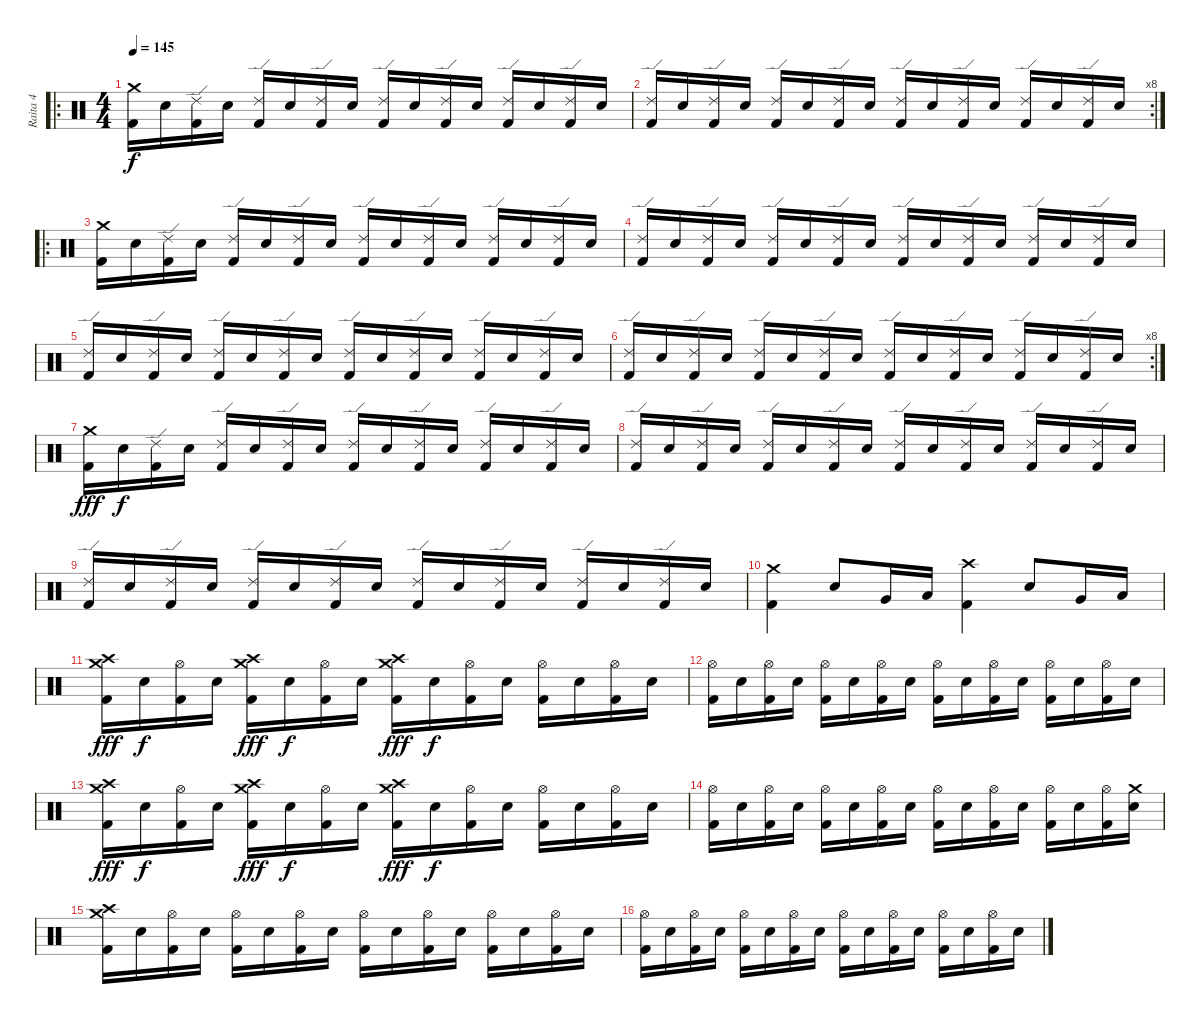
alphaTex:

\track ("Raita 4" "Raita 4") {instrument percussion}
\staff {score}
\articulation defaults
\ro
\ts (4 4)
\tempo 145
\clef neutral
\ks c
("Crash medium (hit)" "Kick (hit) 2").16{dy f} "Electric Snare (hit)".16 ("Ride (edge) 2" "Kick (hit) 2").16 "Electric Snare (hit)".16 ("Ride (edge) 2" "Kick (hit) 2").16 "Electric Snare (hit)".16 ("Ride (edge) 2" "Kick (hit) 2").16 "Electric Snare (hit)".16 ("Ride (edge) 2" "Kick (hit) 2").16 "Electric Snare (hit)".16 ("Ride (edge) 2" "Kick (hit) 2").16 "Electric Snare (hit)".16 ("Ride (edge) 2" "Kick (hit) 2").16 "Electric Snare (hit)".16 ("Ride (edge) 2" "Kick (hit) 2").16 "Electric Snare (hit)".16 |
\rc 8
("Ride (edge) 2" "Kick (hit) 2").16 "Electric Snare (hit)".16 ("Ride (edge) 2" "Kick (hit) 2").16 "Electric Snare (hit)".16 ("Ride (edge) 2" "Kick (hit) 2").16 "Electric Snare (hit)".16 ("Ride (edge) 2" "Kick (hit) 2").16 "Electric Snare (hit)".16 ("Ride (edge) 2" "Kick (hit) 2").16 "Electric Snare (hit)".16 ("Ride (edge) 2" "Kick (hit) 2").16 "Electric Snare (hit)".16 ("Ride (edge) 2" "Kick (hit) 2").16 "Electric Snare (hit)".16 ("Ride (edge) 2" "Kick (hit) 2").16 "Electric Snare (hit)".16 |
\ro
("Crash medium (hit)" "Kick (hit) 2").16 "Electric Snare (hit)".16 ("Ride (edge) 2" "Kick (hit) 2").16 "Electric Snare (hit)".16 ("Ride (edge) 2" "Kick (hit) 2").16 "Electric Snare (hit)".16 ("Ride (edge) 2" "Kick (hit) 2").16 "Electric Snare (hit)".16 ("Ride (edge) 2" "Kick (hit) 2").16 "Electric Snare (hit)".16 ("Ride (edge) 2" "Kick (hit) 2").16 "Electric Snare (hit)".16 ("Ride (edge) 2" "Kick (hit) 2").16 "Electric Snare (hit)".16 ("Ride (edge) 2" "Kick (hit) 2").16 "Electric Snare (hit)".16 |
("Ride (edge) 2" "Kick (hit) 2").16 "Electric Snare (hit)".16 ("Ride (edge) 2" "Kick (hit) 2").16 "Electric Snare (hit)".16 ("Ride (edge) 2" "Kick (hit) 2").16 "Electric Snare (hit)".16 ("Ride (edge) 2" "Kick (hit) 2").16 "Electric Snare (hit)".16 ("Ride (edge) 2" "Kick (hit) 2").16 "Electric Snare (hit)".16 ("Ride (edge) 2" "Kick (hit) 2").16 "Electric Snare (hit)".16 ("Ride (edge) 2" "Kick (hit) 2").16 "Electric Snare (hit)".16 ("Ride (edge) 2" "Kick (hit) 2").16 "Electric Snare (hit)".16 |
("Ride (edge) 2" "Kick (hit) 2").16 "Electric Snare (hit)".16 ("Ride (edge) 2" "Kick (hit) 2").16 "Electric Snare (hit)".16 ("Ride (edge) 2" "Kick (hit) 2").16 "Electric Snare (hit)".16 ("Ride (edge) 2" "Kick (hit) 2").16 "Electric Snare (hit)".16 ("Ride (edge) 2" "Kick (hit) 2").16 "Electric Snare (hit)".16 ("Ride (edge) 2" "Kick (hit) 2").16 "Electric Snare (hit)".16 ("Ride (edge) 2" "Kick (hit) 2").16 "Electric Snare (hit)".16 ("Ride (edge) 2" "Kick (hit) 2").16 "Electric Snare (hit)".16 |
\rc 8
("Ride (edge) 2" "Kick (hit) 2").16 "Electric Snare (hit)".16 ("Ride (edge) 2" "Kick (hit) 2").16 "Electric Snare (hit)".16 ("Ride (edge) 2" "Kick (hit) 2").16 "Electric Snare (hit)".16 ("Ride (edge) 2" "Kick (hit) 2").16 "Electric Snare (hit)".16 ("Ride (edge) 2" "Kick (hit) 2").16 "Electric Snare (hit)".16 ("Ride (edge) 2" "Kick (hit) 2").16 "Electric Snare (hit)".16 ("Ride (edge) 2" "Kick (hit) 2").16 "Electric Snare (hit)".16 ("Ride (edge) 2" "Kick (hit) 2").16 "Electric Snare (hit)".16 |
("Crash medium (hit)" "Kick (hit) 2").16{dy fff} "Electric Snare (hit)".16{dy f} ("Ride (edge) 2" "Kick (hit) 2").16 "Electric Snare (hit)".16 ("Ride (edge) 2" "Kick (hit) 2").16 "Electric Snare (hit)".16 ("Ride (edge) 2" "Kick (hit) 2").16 "Electric Snare (hit)".16 ("Ride (edge) 2" "Kick (hit) 2").16 "Electric Snare (hit)".16 ("Ride (edge) 2" "Kick (hit) 2").16 "Electric Snare (hit)".16 ("Ride (edge) 2" "Kick (hit) 2").16 "Electric Snare (hit)".16 ("Ride (edge) 2" "Kick (hit) 2").16 "Electric Snare (hit)".16 |
("Ride (edge) 2" "Kick (hit) 2").16 "Electric Snare (hit)".16 ("Ride (edge) 2" "Kick (hit) 2").16 "Electric Snare (hit)".16 ("Ride (edge) 2" "Kick (hit) 2").16 "Electric Snare (hit)".16 ("Ride (edge) 2" "Kick (hit) 2").16 "Electric Snare (hit)".16 ("Ride (edge) 2" "Kick (hit) 2").16 "Electric Snare (hit)".16 ("Ride (edge) 2" "Kick (hit) 2").16 "Electric Snare (hit)".16 ("Ride (edge) 2" "Kick (hit) 2").16 "Electric Snare (hit)".16 ("Ride (edge) 2" "Kick (hit) 2").16 "Electric Snare (hit)".16 |
("Ride (edge) 2" "Kick (hit) 2").16 "Electric Snare (hit)".16 ("Ride (edge) 2" "Kick (hit) 2").16 "Electric Snare (hit)".16 ("Ride (edge) 2" "Kick (hit) 2").16 "Electric Snare (hit)".16 ("Ride (edge) 2" "Kick (hit) 2").16 "Electric Snare (hit)".16 ("Ride (edge) 2" "Kick (hit) 2").16 "Electric Snare (hit)".16 ("Ride (edge) 2" "Kick (hit) 2").16 "Electric Snare (hit)".16 ("Ride (edge) 2" "Kick (hit) 2").16 "Electric Snare (hit)".16 ("Ride (edge) 2" "Kick (hit) 2").16 "Electric Snare (hit)".16 |
("Crash medium (hit)" "Kick (hit) 2").4 "Electric Snare (hit)".8 "Very Low Tom (hit)".16 "Low Floor Tom (hit)".16 ("Crash high (hit)" "Kick (hit) 2").4 "Electric Snare (hit)".8 "Very Low Tom (hit)".16 "Low Floor Tom (hit)".16 |
("Crash high (hit)" "Crash medium (hit)" "Kick (hit) 2").16{dy fff} "Electric Snare (hit)".16{dy f} ("Hi-Hat (open)" "Kick (hit) 2").16 "Electric Snare (hit)".16 ("Crash high (hit)" "Crash medium (hit)" "Kick (hit) 2").16{dy fff} "Electric Snare (hit)".16{dy f} ("Hi-Hat (open)" "Kick (hit) 2").16 "Electric Snare (hit)".16 ("Crash high (hit)" "Crash medium (hit)" "Kick (hit) 2").16{dy fff} "Electric Snare (hit)".16{dy f} ("Hi-Hat (open)" "Kick (hit) 2").16 "Electric Snare (hit)".16 ("Hi-Hat (open)" "Kick (hit) 2").16 "Electric Snare (hit)".16 ("Hi-Hat (open)" "Kick (hit) 2").16 "Electric Snare (hit)".16 |
("Hi-Hat (open)" "Kick (hit) 2").16 "Electric Snare (hit)".16 ("Hi-Hat (open)" "Kick (hit) 2").16 "Electric Snare (hit)".16 ("Hi-Hat (open)" "Kick (hit) 2").16 "Electric Snare (hit)".16 ("Hi-Hat (open)" "Kick (hit) 2").16 "Electric Snare (hit)".16 ("Hi-Hat (open)" "Kick (hit) 2").16 "Electric Snare (hit)".16 ("Hi-Hat (open)" "Kick (hit) 2").16 "Electric Snare (hit)".16 ("Hi-Hat (open)" "Kick (hit) 2").16 "Electric Snare (hit)".16 ("Hi-Hat (open)" "Kick (hit) 2").16 "Electric Snare (hit)".16 |
("Crash high (hit)" "Crash medium (hit)" "Kick (hit) 2").16{dy fff} "Electric Snare (hit)".16{dy f} ("Hi-Hat (open)" "Kick (hit) 2").16 "Electric Snare (hit)".16 ("Crash high (hit)" "Crash medium (hit)" "Kick (hit) 2").16{dy fff} "Electric Snare (hit)".16{dy f} ("Hi-Hat (open)" "Kick (hit) 2").16 "Electric Snare (hit)".16 ("Crash high (hit)" "Crash medium (hit)" "Kick (hit) 2").16{dy fff} "Electric Snare (hit)".16{dy f} ("Hi-Hat (open)" "Kick (hit) 2").16 "Electric Snare (hit)".16 ("Hi-Hat (open)" "Kick (hit) 2").16 "Electric Snare (hit)".16 ("Hi-Hat (open)" "Kick (hit) 2").16 "Electric Snare (hit)".16 |
("Hi-Hat (open)" "Kick (hit) 2").16 "Electric Snare (hit)".16 ("Hi-Hat (open)" "Kick (hit) 2").16 "Electric Snare (hit)".16 ("Hi-Hat (open)" "Kick (hit) 2").16 "Electric Snare (hit)".16 ("Hi-Hat (open)" "Kick (hit) 2").16 "Electric Snare (hit)".16 ("Hi-Hat (open)" "Kick (hit) 2").16 "Electric Snare (hit)".16 ("Hi-Hat (open)" "Kick (hit) 2").16 "Electric Snare (hit)".16 ("Hi-Hat (open)" "Kick (hit) 2").16 "Electric Snare (hit)".16 ("Hi-Hat (open)" "Kick (hit) 2").16 ("Crash medium (hit)" "Electric Snare (hit)").16 |
("Crash high (hit)" "Crash medium (hit)" "Kick (hit) 2").16 "Electric Snare (hit)".16 ("Hi-Hat (open)" "Kick (hit) 2").16 "Electric Snare (hit)".16 ("Hi-Hat (open)" "Kick (hit) 2").16 "Electric Snare (hit)".16 ("Hi-Hat (open)" "Kick (hit) 2").16 "Electric Snare (hit)".16 ("Hi-Hat (open)" "Kick (hit) 2").16 "Electric Snare (hit)".16 ("Hi-Hat (open)" "Kick (hit) 2").16 "Electric Snare (hit)".16 ("Hi-Hat (open)" "Kick (hit) 2").16 "Electric Snare (hit)".16 ("Hi-Hat (open)" "Kick (hit) 2").16 "Electric Snare (hit)".16 |
("Hi-Hat (open)" "Kick (hit) 2").16 "Electric Snare (hit)".16 ("Hi-Hat (open)" "Kick (hit) 2").16 "Electric Snare (hit)".16 ("Hi-Hat (open)" "Kick (hit) 2").16 "Electric Snare (hit)".16 ("Hi-Hat (open)" "Kick (hit) 2").16 "Electric Snare (hit)".16 ("Hi-Hat (open)" "Kick (hit) 2").16 "Electric Snare (hit)".16 ("Hi-Hat (open)" "Kick (hit) 2").16 "Electric Snare (hit)".16 ("Hi-Hat (open)" "Kick (hit) 2").16 "Electric Snare (hit)".16 ("Hi-Hat (open)" "Kick (hit) 2").16 "Electric Snare (hit)".16
